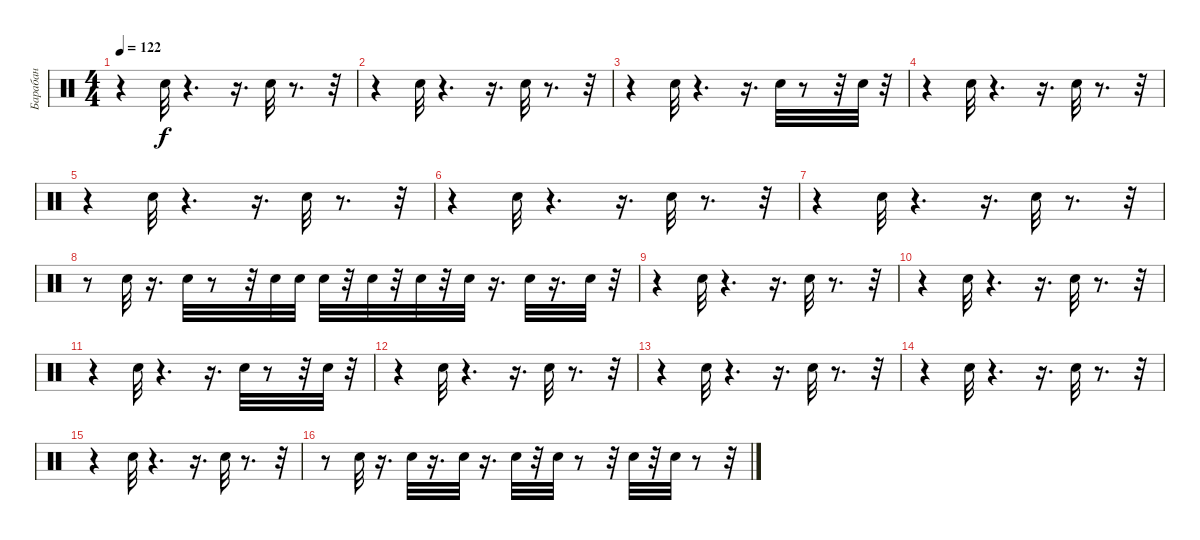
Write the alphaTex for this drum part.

\track ("Барабан" "Барабан") {instrument percussion}
\staff {score}
\articulation defaults
\ts (4 4)
\tempo 122
\clef neutral
\ks c
r.4{dy f} "Snare (hit) 2".32 r.4{d} r.16{d} "Snare (hit) 2".32 r.8{d} r.32 |
r.4 "Snare (hit) 2".32 r.4{d} r.16{d} "Snare (hit) 2".32 r.8{d} r.32 |
r.4 "Snare (hit) 2".32 r.4{d} r.16{d} "Snare (hit) 2".32 r.8 r.32 "Snare (hit) 2".32 r.32 |
r.4 "Snare (hit) 2".32 r.4{d} r.16{d} "Snare (hit) 2".32 r.8{d} r.32 |
r.4 "Snare (hit) 2".32 r.4{d} r.16{d} "Snare (hit) 2".32 r.8{d} r.32 |
r.4 "Snare (hit) 2".32 r.4{d} r.16{d} "Snare (hit) 2".32 r.8{d} r.32 |
r.4 "Snare (hit) 2".32 r.4{d} r.16{d} "Snare (hit) 2".32 r.8{d} r.32 |
r.8 "Snare (hit) 2".32 r.16{d} "Snare (hit) 2".32 r.8 r.32 "Snare (hit) 2".32 "Snare (hit) 2".32 "Snare (hit) 2".32 r.32 "Snare (hit) 2".32 r.32 "Snare (hit) 2".32 r.32 "Snare (hit) 2".32 r.16{d} "Snare (hit) 2".32 r.16{d} "Snare (hit) 2".32 r.32 |
r.4 "Snare (hit) 2".32 r.4{d} r.16{d} "Snare (hit) 2".32 r.8{d} r.32 |
r.4 "Snare (hit) 2".32 r.4{d} r.16{d} "Snare (hit) 2".32 r.8{d} r.32 |
r.4 "Snare (hit) 2".32 r.4{d} r.16{d} "Snare (hit) 2".32 r.8 r.32 "Snare (hit) 2".32 r.32 |
r.4 "Snare (hit) 2".32 r.4{d} r.16{d} "Snare (hit) 2".32 r.8{d} r.32 |
r.4 "Snare (hit) 2".32 r.4{d} r.16{d} "Snare (hit) 2".32 r.8{d} r.32 |
r.4 "Snare (hit) 2".32 r.4{d} r.16{d} "Snare (hit) 2".32 r.8{d} r.32 |
r.4 "Snare (hit) 2".32 r.4{d} r.16{d} "Snare (hit) 2".32 r.8{d} r.32 |
r.8 "Snare (hit) 2".32 r.16{d} "Snare (hit) 2".32 r.16{d} "Snare (hit) 2".32 r.16{d} "Snare (hit) 2".32 r.32 "Snare (hit) 2".32 r.8 r.32 "Snare (hit) 2".32 r.32 "Snare (hit) 2".32 r.8 r.32
